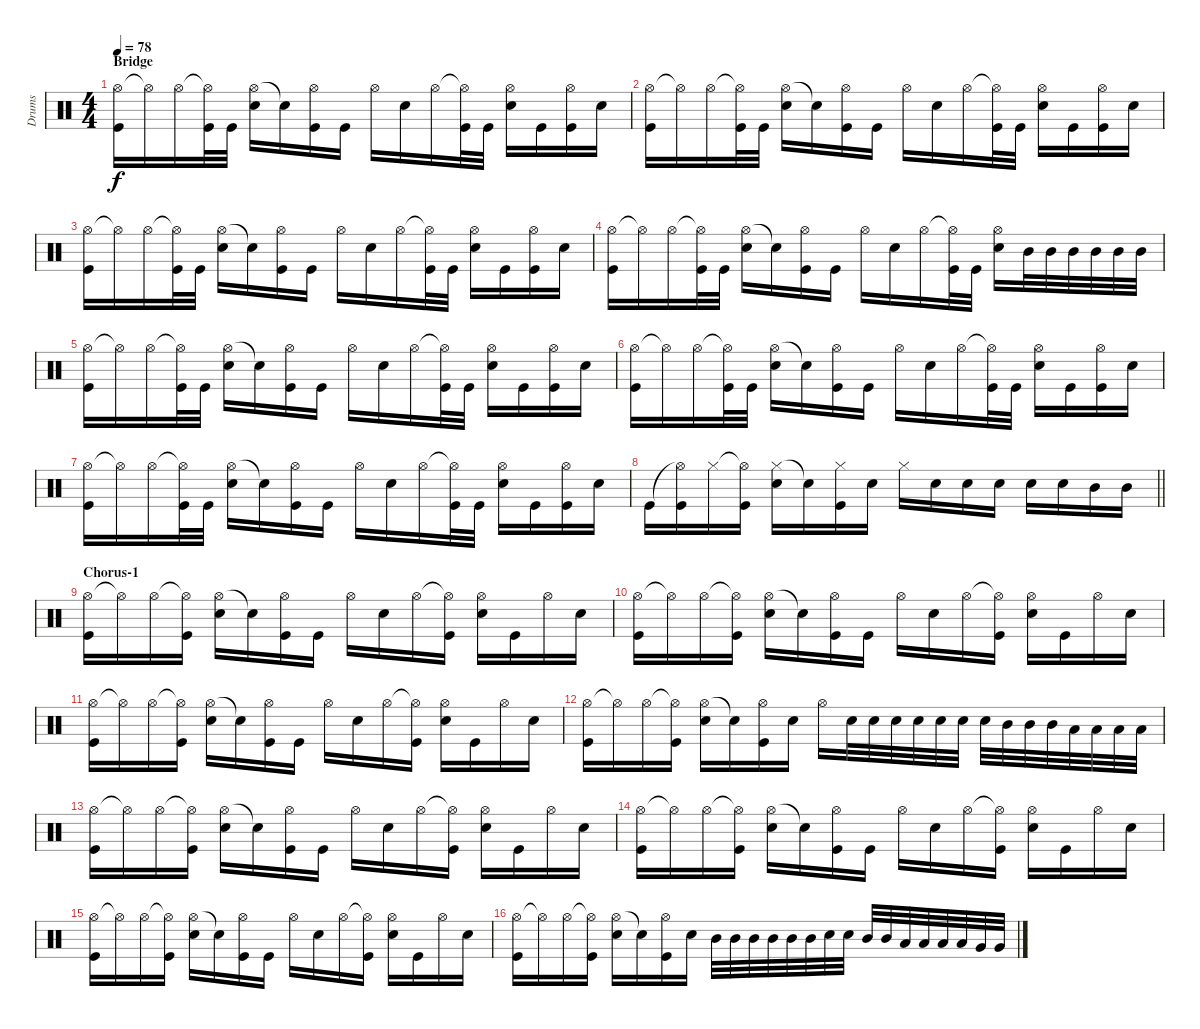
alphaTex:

\track ("Drums" "Drums") {instrument percussion}
\staff {score}
\articulation defaults
\ts (4 4)
\section ("" "Bridge")
\tempo 78
\clef neutral
\ks c
("Hi-Hat (open)" "Kick (hit)").16{dy f} "Hi-Hat (open)"{t}.16 "Hi-Hat (open)".16 ("Hi-Hat (open)"{t} "Kick (hit)").32 "Kick (hit)".32 ("Hi-Hat (open)" "Electric Snare (hit)").16 "Snare (hit)"{t}.16 ("Hi-Hat (open)" "Kick (hit)").16 "Kick (hit)".16 "Hi-Hat (open)".16 "Electric Snare (hit)".16 "Hi-Hat (open)".16 ("Hi-Hat (open)"{t} "Kick (hit)").32 "Kick (hit)".32 ("Hi-Hat (open)" "Electric Snare (hit)").16 "Kick (hit)".16 ("Hi-Hat (open)" "Kick (hit)").16 "Electric Snare (hit)".16 |
("Hi-Hat (open)" "Kick (hit)").16 "Hi-Hat (open)"{t}.16 "Hi-Hat (open)".16 ("Hi-Hat (open)"{t} "Kick (hit)").32 "Kick (hit)".32 ("Hi-Hat (open)" "Electric Snare (hit)").16 "Snare (hit)"{t}.16 ("Hi-Hat (open)" "Kick (hit)").16 "Kick (hit)".16 "Hi-Hat (open)".16 "Electric Snare (hit)".16 "Hi-Hat (open)".16 ("Hi-Hat (open)"{t} "Kick (hit)").32 "Kick (hit)".32 ("Hi-Hat (open)" "Electric Snare (hit)").16 "Kick (hit)".16 ("Hi-Hat (open)" "Kick (hit)").16 "Electric Snare (hit)".16 |
("Hi-Hat (open)" "Kick (hit)").16 "Hi-Hat (open)"{t}.16 "Hi-Hat (open)".16 ("Hi-Hat (open)"{t} "Kick (hit)").32 "Kick (hit)".32 ("Hi-Hat (open)" "Electric Snare (hit)").16 "Snare (hit)"{t}.16 ("Hi-Hat (open)" "Kick (hit)").16 "Kick (hit)".16 "Hi-Hat (open)".16 "Electric Snare (hit)".16 "Hi-Hat (open)".16 ("Hi-Hat (open)"{t} "Kick (hit)").32 "Kick (hit)".32 ("Hi-Hat (open)" "Electric Snare (hit)").16 "Kick (hit)".16 ("Hi-Hat (open)" "Kick (hit)").16 "Electric Snare (hit)".16 |
("Hi-Hat (open)" "Kick (hit)").16 "Hi-Hat (open)"{t}.16 "Hi-Hat (open)".16 ("Hi-Hat (open)"{t} "Kick (hit)").32 "Kick (hit)".32 ("Hi-Hat (open)" "Electric Snare (hit)").16 "Snare (hit)"{t}.16 ("Hi-Hat (open)" "Kick (hit)").16 "Kick (hit)".16 "Hi-Hat (open)".16 "Electric Snare (hit)".16 "Hi-Hat (open)".16 ("Hi-Hat (open)"{t} "Kick (hit)").32 "Kick (hit)".32 ("Hi-Hat (open)" "Electric Snare (hit)").16 "Mid Tom (hit)".32 "Mid Tom (hit)".32 "Mid Tom (hit)".32 "Mid Tom (hit)".32 "Mid Tom (hit)".32 "Mid Tom (hit)".32 |
("Hi-Hat (open)" "Kick (hit)").16 "Hi-Hat (open)"{t}.16 "Hi-Hat (open)".16 ("Hi-Hat (open)"{t} "Kick (hit)").32 "Kick (hit)".32 ("Hi-Hat (open)" "Electric Snare (hit)").16 "Snare (hit)"{t}.16 ("Hi-Hat (open)" "Kick (hit)").16 "Kick (hit)".16 "Hi-Hat (open)".16 "Electric Snare (hit)".16 "Hi-Hat (open)".16 ("Hi-Hat (open)"{t} "Kick (hit)").32 "Kick (hit)".32 ("Hi-Hat (open)" "Electric Snare (hit)").16 "Kick (hit)".16 ("Hi-Hat (open)" "Kick (hit)").16 "Electric Snare (hit)".16 |
("Hi-Hat (open)" "Kick (hit)").16 "Hi-Hat (open)"{t}.16 "Hi-Hat (open)".16 ("Hi-Hat (open)"{t} "Kick (hit)").32 "Kick (hit)".32 ("Hi-Hat (open)" "Electric Snare (hit)").16 "Snare (hit)"{t}.16 ("Hi-Hat (open)" "Kick (hit)").16 "Kick (hit)".16 "Hi-Hat (open)".16 "Electric Snare (hit)".16 "Hi-Hat (open)".16 ("Hi-Hat (open)"{t} "Kick (hit)").32 "Kick (hit)".32 ("Hi-Hat (open)" "Electric Snare (hit)").16 "Kick (hit)".16 ("Hi-Hat (open)" "Kick (hit)").16 "Electric Snare (hit)".16 |
("Hi-Hat (open)" "Kick (hit)").16 "Hi-Hat (open)"{t}.16 "Hi-Hat (open)".16 ("Hi-Hat (open)"{t} "Kick (hit)").32 "Kick (hit)".32 ("Hi-Hat (open)" "Electric Snare (hit)").16 "Snare (hit)"{t}.16 ("Hi-Hat (open)" "Kick (hit)").16 "Kick (hit)".16 "Hi-Hat (open)".16 "Electric Snare (hit)".16 "Hi-Hat (open)".16 ("Hi-Hat (open)"{t} "Kick (hit)").32 "Kick (hit)".32 ("Hi-Hat (open)" "Electric Snare (hit)").16 "Kick (hit)".16 ("Hi-Hat (open)" "Kick (hit)").16 "Electric Snare (hit)".16 |
\barLineRight lightlight "Kick (hit)".16
("Hi-Hat (open)"{t} "Kick (hit)").16 "Hi-Hat (closed)".16 ("Hi-Hat (open)"{t} "Kick (hit)").16 ("Hi-Hat (closed)" "Electric Snare (hit)").16 "Snare (hit)"{t}.16 ("Hi-Hat (closed)" "Kick (hit)").16 "Electric Snare (hit)".16 "Hi-Hat (closed)".16 "Electric Snare (hit)".16 "Electric Snare (hit)".16 "Electric Snare (hit)".16 "Electric Snare (hit)".16 "Electric Snare (hit)".16 "Mid Tom (hit)".16 "Mid Tom (hit)".16 |
\section ("" "Chorus-1")
("Hi-Hat (open)" "Kick (hit)").16 "Hi-Hat (open)"{t}.16 "Hi-Hat (open)".16 ("Hi-Hat (open)"{t} "Kick (hit)").16 ("Hi-Hat (open)" "Electric Snare (hit)").16 "Snare (hit)"{t}.16 ("Hi-Hat (open)" "Kick (hit)").16 "Kick (hit)".16 "Hi-Hat (open)".16 "Electric Snare (hit)".16 "Hi-Hat (open)".16 ("Hi-Hat (open)"{t} "Kick (hit)").16 ("Hi-Hat (open)" "Electric Snare (hit)").16 "Kick (hit)".16 "Hi-Hat (open)".16 "Electric Snare (hit)".16 |
("Hi-Hat (open)" "Kick (hit)").16 "Hi-Hat (open)"{t}.16 "Hi-Hat (open)".16 ("Hi-Hat (open)"{t} "Kick (hit)").16 ("Hi-Hat (open)" "Electric Snare (hit)").16 "Snare (hit)"{t}.16 ("Hi-Hat (open)" "Kick (hit)").16 "Kick (hit)".16 "Hi-Hat (open)".16 "Electric Snare (hit)".16 "Hi-Hat (open)".16 ("Hi-Hat (open)"{t} "Kick (hit)").16 ("Hi-Hat (open)" "Electric Snare (hit)").16 "Kick (hit)".16 "Hi-Hat (open)".16 "Electric Snare (hit)".16 |
("Hi-Hat (open)" "Kick (hit)").16 "Hi-Hat (open)"{t}.16 "Hi-Hat (open)".16 ("Hi-Hat (open)"{t} "Kick (hit)").16 ("Hi-Hat (open)" "Electric Snare (hit)").16 "Snare (hit)"{t}.16 ("Hi-Hat (open)" "Kick (hit)").16 "Kick (hit)".16 "Hi-Hat (open)".16 "Electric Snare (hit)".16 "Hi-Hat (open)".16 ("Hi-Hat (open)"{t} "Kick (hit)").16 ("Hi-Hat (open)" "Electric Snare (hit)").16 "Kick (hit)".16 "Hi-Hat (open)".16 "Electric Snare (hit)".16 |
("Hi-Hat (open)" "Kick (hit)").16 "Hi-Hat (open)"{t}.16 "Hi-Hat (open)".16 ("Hi-Hat (open)"{t} "Kick (hit)").16 ("Hi-Hat (open)" "Electric Snare (hit)").16 "Snare (hit)"{t}.16 ("Hi-Hat (open)" "Kick (hit)").16 "Electric Snare (hit)".16 "Hi-Hat (open)".16 "Electric Snare (hit)".32 "Electric Snare (hit)".32 "Electric Snare (hit)".32 "Electric Snare (hit)".32 "Electric Snare (hit)".32 "Electric Snare (hit)".32 "Electric Snare (hit)".32 "Mid Tom (hit)".32 "Mid Tom (hit)".32 "Mid Tom (hit)".32 "Low Tom (hit)".32 "Low Tom (hit)".32 "Low Tom (hit)".32 "Low Tom (hit)".32 |
("Hi-Hat (open)" "Kick (hit)").16 "Hi-Hat (open)"{t}.16 "Hi-Hat (open)".16 ("Hi-Hat (open)"{t} "Kick (hit)").16 ("Hi-Hat (open)" "Electric Snare (hit)").16 "Snare (hit)"{t}.16 ("Hi-Hat (open)" "Kick (hit)").16 "Kick (hit)".16 "Hi-Hat (open)".16 "Electric Snare (hit)".16 "Hi-Hat (open)".16 ("Hi-Hat (open)"{t} "Kick (hit)").16 ("Hi-Hat (open)" "Electric Snare (hit)").16 "Kick (hit)".16 "Hi-Hat (open)".16 "Electric Snare (hit)".16 |
("Hi-Hat (open)" "Kick (hit)").16 "Hi-Hat (open)"{t}.16 "Hi-Hat (open)".16 ("Hi-Hat (open)"{t} "Kick (hit)").16 ("Hi-Hat (open)" "Electric Snare (hit)").16 "Snare (hit)"{t}.16 ("Hi-Hat (open)" "Kick (hit)").16 "Kick (hit)".16 "Hi-Hat (open)".16 "Electric Snare (hit)".16 "Hi-Hat (open)".16 ("Hi-Hat (open)"{t} "Kick (hit)").16 ("Hi-Hat (open)" "Electric Snare (hit)").16 "Kick (hit)".16 "Hi-Hat (open)".16 "Electric Snare (hit)".16 |
("Hi-Hat (open)" "Kick (hit)").16 "Hi-Hat (open)"{t}.16 "Hi-Hat (open)".16 ("Hi-Hat (open)"{t} "Kick (hit)").16 ("Hi-Hat (open)" "Electric Snare (hit)").16 "Snare (hit)"{t}.16 ("Hi-Hat (open)" "Kick (hit)").16 "Kick (hit)".16 "Hi-Hat (open)".16 "Electric Snare (hit)".16 "Hi-Hat (open)".16 ("Hi-Hat (open)"{t} "Kick (hit)").16 ("Hi-Hat (open)" "Electric Snare (hit)").16 "Kick (hit)".16 "Hi-Hat (open)".16 "Electric Snare (hit)".16 |
("Hi-Hat (open)" "Kick (hit)").16 "Hi-Hat (open)"{t}.16 "Hi-Hat (open)".16 ("Hi-Hat (open)"{t} "Kick (hit)").16 ("Hi-Hat (open)" "Electric Snare (hit)").16 "Snare (hit)"{t}.16 ("Hi-Hat (open)" "Kick (hit)").16 "Electric Snare (hit)".16 "Mid Tom (hit)".32 "Mid Tom (hit)".32 "Mid Tom (hit)".32 "Mid Tom (hit)".32 "Mid Tom (hit)".32 "Mid Tom (hit)".32 "Electric Snare (hit)".32 "Electric Snare (hit)".32 "Mid Tom (hit)".32 "Mid Tom (hit)".32 "Low Tom (hit)".32 "Low Tom (hit)".32 "Low Tom (hit)".32 "Low Tom (hit)".32 "Very Low Tom (hit)".32 "Very Low Tom (hit)".32
